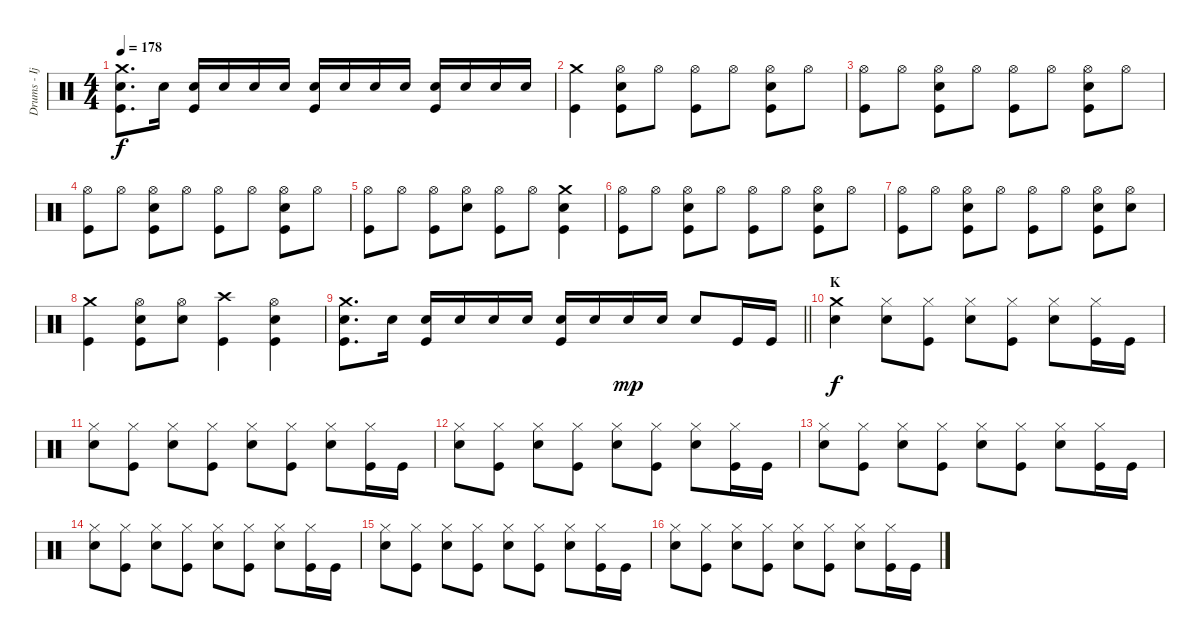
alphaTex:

\track ("Drums - Ijichi" "Drums - Ij") {instrument percussion}
\staff {score}
\articulation defaults
\ts (4 4)
\tempo 178
\clef neutral
\ks c
("Crash medium (hit)" "Electric Snare (hit)" "Kick (hit)").8{d dy f} "Electric Snare (hit)".16 ("Electric Snare (hit)" "Kick (hit)").16 "Electric Snare (hit)".16 "Electric Snare (hit)".16 "Electric Snare (hit)".16 ("Electric Snare (hit)" "Kick (hit)").16 "Electric Snare (hit)".16 "Electric Snare (hit)".16 "Electric Snare (hit)".16 ("Electric Snare (hit)" "Kick (hit)").16 "Electric Snare (hit)".16 "Electric Snare (hit)".16 "Electric Snare (hit)".16 |
("Crash medium (hit)" "Kick (hit)").4 ("Hi-Hat (open)" "Electric Snare (hit)" "Kick (hit)").8 "Hi-Hat (open)".8 ("Hi-Hat (open)" "Kick (hit)").8 "Hi-Hat (open)".8 ("Hi-Hat (open)" "Electric Snare (hit)" "Kick (hit)").8 "Hi-Hat (open)".8 |
("Hi-Hat (open)" "Kick (hit)").8 "Hi-Hat (open)".8 ("Hi-Hat (open)" "Electric Snare (hit)" "Kick (hit)").8 "Hi-Hat (open)".8 ("Hi-Hat (open)" "Kick (hit)").8 "Hi-Hat (open)".8 ("Hi-Hat (open)" "Electric Snare (hit)" "Kick (hit)").8 "Hi-Hat (open)".8 |
("Hi-Hat (open)" "Kick (hit)").8 "Hi-Hat (open)".8 ("Hi-Hat (open)" "Electric Snare (hit)" "Kick (hit)").8 "Hi-Hat (open)".8 ("Hi-Hat (open)" "Kick (hit)").8 "Hi-Hat (open)".8 ("Hi-Hat (open)" "Electric Snare (hit)" "Kick (hit)").8 "Hi-Hat (open)".8 |
("Hi-Hat (open)" "Kick (hit)").8 "Hi-Hat (open)".8 ("Hi-Hat (open)" "Kick (hit)").8 ("Hi-Hat (open)" "Electric Snare (hit)").8 ("Hi-Hat (open)" "Kick (hit)").8 "Hi-Hat (open)".8 ("Crash medium (hit)" "Electric Snare (hit)" "Kick (hit)").4 |
("Hi-Hat (open)" "Kick (hit)").8 "Hi-Hat (open)".8 ("Hi-Hat (open)" "Electric Snare (hit)" "Kick (hit)").8 "Hi-Hat (open)".8 ("Hi-Hat (open)" "Kick (hit)").8 "Hi-Hat (open)".8 ("Hi-Hat (open)" "Electric Snare (hit)" "Kick (hit)").8 "Hi-Hat (open)".8 |
("Hi-Hat (open)" "Kick (hit)").8 "Hi-Hat (open)".8 ("Hi-Hat (open)" "Electric Snare (hit)" "Kick (hit)").8 "Hi-Hat (open)".8 ("Hi-Hat (open)" "Kick (hit)").8 "Hi-Hat (open)".8 ("Hi-Hat (open)" "Electric Snare (hit)" "Kick (hit)").8 ("Hi-Hat (open)" "Electric Snare (hit)").8 |
("Crash medium (hit)" "Kick (hit)").4 ("Hi-Hat (open)" "Electric Snare (hit)" "Kick (hit)").8 ("Hi-Hat (open)" "Electric Snare (hit)").8 ("Crash high (hit)" "Kick (hit)").4 ("Hi-Hat (open)" "Electric Snare (hit)" "Kick (hit)").4 |
\barLineRight lightlight
("Crash medium (hit)" "Electric Snare (hit)" "Kick (hit)").8{d} "Electric Snare (hit)".16 ("Electric Snare (hit)" "Kick (hit)").16 "Electric Snare (hit)".16 "Electric Snare (hit)".16 "Electric Snare (hit)".16 ("Electric Snare (hit)" "Kick (hit)").16 "Electric Snare (hit)".16 "Electric Snare (hit)".16{dy mp} "Electric Snare (hit)".16 "Electric Snare (hit)".8 "Kick (hit)".16 "Kick (hit)".16 |
\section ("" "K")
("Crash medium (hit)" "Electric Snare (hit)").4{dy f} ("Hi-Hat (closed)" "Electric Snare (hit)").8 ("Hi-Hat (closed)" "Kick (hit)").8 ("Hi-Hat (closed)" "Electric Snare (hit)").8 ("Hi-Hat (closed)" "Kick (hit)").8 ("Hi-Hat (closed)" "Electric Snare (hit)").8 ("Hi-Hat (closed)" "Kick (hit)").16 "Kick (hit)".16 |
("Hi-Hat (closed)" "Electric Snare (hit)").8 ("Hi-Hat (closed)" "Kick (hit)").8 ("Hi-Hat (closed)" "Electric Snare (hit)").8 ("Hi-Hat (closed)" "Kick (hit)").8 ("Hi-Hat (closed)" "Electric Snare (hit)").8 ("Hi-Hat (closed)" "Kick (hit)").8 ("Hi-Hat (closed)" "Electric Snare (hit)").8 ("Hi-Hat (closed)" "Kick (hit)").16 "Kick (hit)".16 |
("Hi-Hat (closed)" "Electric Snare (hit)").8 ("Hi-Hat (closed)" "Kick (hit)").8 ("Hi-Hat (closed)" "Electric Snare (hit)").8 ("Hi-Hat (closed)" "Kick (hit)").8 ("Hi-Hat (closed)" "Electric Snare (hit)").8 ("Hi-Hat (closed)" "Kick (hit)").8 ("Hi-Hat (closed)" "Electric Snare (hit)").8 ("Hi-Hat (closed)" "Kick (hit)").16 "Kick (hit)".16 |
("Hi-Hat (closed)" "Electric Snare (hit)").8 ("Hi-Hat (closed)" "Kick (hit)").8 ("Hi-Hat (closed)" "Electric Snare (hit)").8 ("Hi-Hat (closed)" "Kick (hit)").8 ("Hi-Hat (closed)" "Electric Snare (hit)").8 ("Hi-Hat (closed)" "Kick (hit)").8 ("Hi-Hat (closed)" "Electric Snare (hit)").8 ("Hi-Hat (closed)" "Kick (hit)").16 "Kick (hit)".16 |
("Hi-Hat (closed)" "Electric Snare (hit)").8 ("Hi-Hat (closed)" "Kick (hit)").8 ("Hi-Hat (closed)" "Electric Snare (hit)").8 ("Hi-Hat (closed)" "Kick (hit)").8 ("Hi-Hat (closed)" "Electric Snare (hit)").8 ("Hi-Hat (closed)" "Kick (hit)").8 ("Hi-Hat (closed)" "Electric Snare (hit)").8 ("Hi-Hat (closed)" "Kick (hit)").16 "Kick (hit)".16 |
("Hi-Hat (closed)" "Electric Snare (hit)").8 ("Hi-Hat (closed)" "Kick (hit)").8 ("Hi-Hat (closed)" "Electric Snare (hit)").8 ("Hi-Hat (closed)" "Kick (hit)").8 ("Hi-Hat (closed)" "Electric Snare (hit)").8 ("Hi-Hat (closed)" "Kick (hit)").8 ("Hi-Hat (closed)" "Electric Snare (hit)").8 ("Hi-Hat (closed)" "Kick (hit)").16 "Kick (hit)".16 |
("Hi-Hat (closed)" "Electric Snare (hit)").8 ("Hi-Hat (closed)" "Kick (hit)").8 ("Hi-Hat (closed)" "Electric Snare (hit)").8 ("Hi-Hat (closed)" "Kick (hit)").8 ("Hi-Hat (closed)" "Electric Snare (hit)").8 ("Hi-Hat (closed)" "Kick (hit)").8 ("Hi-Hat (closed)" "Electric Snare (hit)").8 ("Hi-Hat (closed)" "Kick (hit)").16 "Kick (hit)".16
